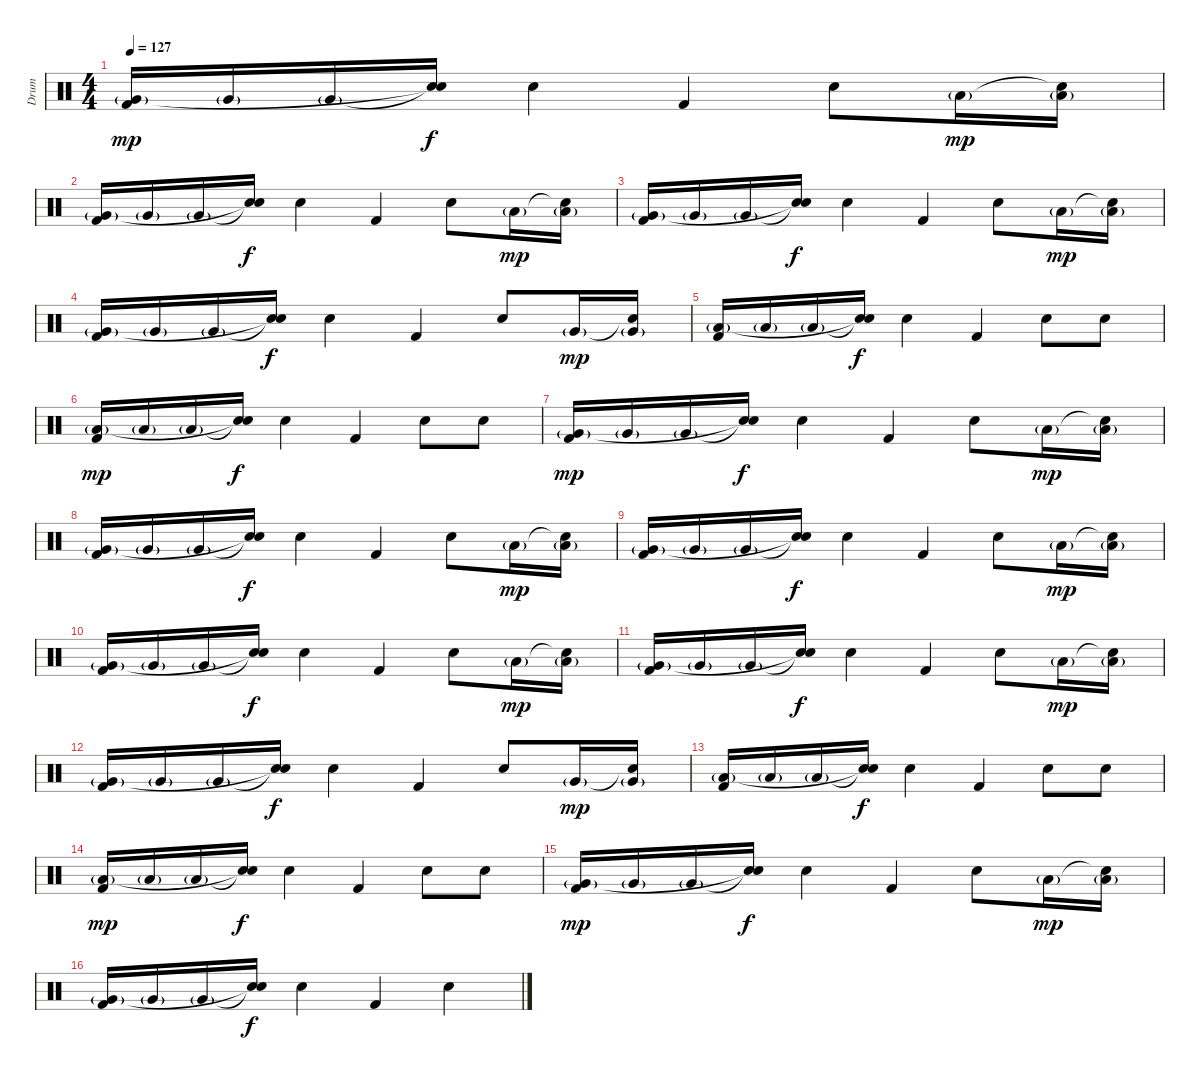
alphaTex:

\track ("Drum" "Drum") {instrument percussion}
\staff {score}
\articulation defaults
\ts (4 4)
\tempo 127
\clef neutral
\ks c
("Kick (hit) 2" "Very Low Tom (hit)"{g}).16{dy mp} "Very Low Tom (hit)"{g}.16 "Very Low Tom (hit)"{g}.16 ("Snare (hit)"{t} "Snare (hit)"{t}).16{dy f} "Electric Snare (hit)".4 "Kick (hit) 2".4 "Electric Snare (hit)".8 "Low Tom (hit)"{g}.16{dy mp} ("Snare (hit)"{t} "Low Tom (hit)"{g}).16 |
("Kick (hit) 2" "Very Low Tom (hit)"{g}).16 "Very Low Tom (hit)"{g}.16 "Very Low Tom (hit)"{g}.16 ("Snare (hit)"{t} "Snare (hit)"{t}).16{dy f} "Electric Snare (hit)".4 "Kick (hit) 2".4 "Electric Snare (hit)".8 "Low Tom (hit)"{g}.16{dy mp} ("Snare (hit)"{t} "Low Tom (hit)"{g}).16 |
("Kick (hit) 2" "Very Low Tom (hit)"{g}).16 "Very Low Tom (hit)"{g}.16 "Very Low Tom (hit)"{g}.16 ("Snare (hit)"{t} "Snare (hit)"{t}).16{dy f} "Electric Snare (hit)".4 "Kick (hit) 2".4 "Electric Snare (hit)".8 "Low Tom (hit)"{g}.16{dy mp} ("Snare (hit)"{t} "Low Tom (hit)"{g}).16 |
("Kick (hit) 2" "Very Low Tom (hit)"{g}).16 "Very Low Tom (hit)"{g}.16 "Very Low Tom (hit)"{g}.16 ("Snare (hit)"{t} "Snare (hit)"{t}).16{dy f} "Electric Snare (hit)".4 "Kick (hit) 2".4 "Electric Snare (hit)".8 "Very Low Tom (hit)"{g}.16{dy mp} ("Snare (hit)"{t} "Very Low Tom (hit)"{g}).16 |
("Kick (hit) 2" "Low Floor Tom (hit)"{g}).16 "Low Floor Tom (hit)"{g}.16 "Low Floor Tom (hit)"{g}.16 ("Snare (hit)"{t} "Snare (hit)"{t}).16{dy f} "Electric Snare (hit)".4 "Kick (hit) 2".4 "Electric Snare (hit)".8 "Electric Snare (hit)".8 |
("Kick (hit) 2" "Low Floor Tom (hit)"{g}).16{dy mp} "Low Floor Tom (hit)"{g}.16 "Low Floor Tom (hit)"{g}.16 ("Snare (hit)"{t} "Snare (hit)"{t}).16{dy f} "Electric Snare (hit)".4 "Kick (hit) 2".4 "Electric Snare (hit)".8 "Electric Snare (hit)".8 |
("Kick (hit) 2" "Very Low Tom (hit)"{g}).16{dy mp} "Very Low Tom (hit)"{g}.16 "Very Low Tom (hit)"{g}.16 ("Snare (hit)"{t} "Snare (hit)"{t}).16{dy f} "Electric Snare (hit)".4 "Kick (hit) 2".4 "Electric Snare (hit)".8 "Low Tom (hit)"{g}.16{dy mp} ("Snare (hit)"{t} "Low Tom (hit)"{g}).16 |
("Kick (hit) 2" "Very Low Tom (hit)"{g}).16 "Very Low Tom (hit)"{g}.16 "Very Low Tom (hit)"{g}.16 ("Snare (hit)"{t} "Snare (hit)"{t}).16{dy f} "Electric Snare (hit)".4 "Kick (hit) 2".4 "Electric Snare (hit)".8 "Low Tom (hit)"{g}.16{dy mp} ("Snare (hit)"{t} "Low Tom (hit)"{g}).16 |
("Kick (hit) 2" "Very Low Tom (hit)"{g}).16 "Very Low Tom (hit)"{g}.16 "Very Low Tom (hit)"{g}.16 ("Snare (hit)"{t} "Snare (hit)"{t}).16{dy f} "Electric Snare (hit)".4 "Kick (hit) 2".4 "Electric Snare (hit)".8 "Low Tom (hit)"{g}.16{dy mp} ("Snare (hit)"{t} "Low Tom (hit)"{g}).16 |
("Kick (hit) 2" "Very Low Tom (hit)"{g}).16 "Very Low Tom (hit)"{g}.16 "Very Low Tom (hit)"{g}.16 ("Snare (hit)"{t} "Snare (hit)"{t}).16{dy f} "Electric Snare (hit)".4 "Kick (hit) 2".4 "Electric Snare (hit)".8 "Low Tom (hit)"{g}.16{dy mp} ("Snare (hit)"{t} "Low Tom (hit)"{g}).16 |
("Kick (hit) 2" "Very Low Tom (hit)"{g}).16 "Very Low Tom (hit)"{g}.16 "Very Low Tom (hit)"{g}.16 ("Snare (hit)"{t} "Snare (hit)"{t}).16{dy f} "Electric Snare (hit)".4 "Kick (hit) 2".4 "Electric Snare (hit)".8 "Low Tom (hit)"{g}.16{dy mp} ("Snare (hit)"{t} "Low Tom (hit)"{g}).16 |
("Kick (hit) 2" "Very Low Tom (hit)"{g}).16 "Very Low Tom (hit)"{g}.16 "Very Low Tom (hit)"{g}.16 ("Snare (hit)"{t} "Snare (hit)"{t}).16{dy f} "Electric Snare (hit)".4 "Kick (hit) 2".4 "Electric Snare (hit)".8 "Very Low Tom (hit)"{g}.16{dy mp} ("Snare (hit)"{t} "Very Low Tom (hit)"{g}).16 |
("Kick (hit) 2" "Low Floor Tom (hit)"{g}).16 "Low Floor Tom (hit)"{g}.16 "Low Floor Tom (hit)"{g}.16 ("Snare (hit)"{t} "Snare (hit)"{t}).16{dy f} "Electric Snare (hit)".4 "Kick (hit) 2".4 "Electric Snare (hit)".8 "Electric Snare (hit)".8 |
("Kick (hit) 2" "Low Floor Tom (hit)"{g}).16{dy mp} "Low Floor Tom (hit)"{g}.16 "Low Floor Tom (hit)"{g}.16 ("Snare (hit)"{t} "Snare (hit)"{t}).16{dy f} "Electric Snare (hit)".4 "Kick (hit) 2".4 "Electric Snare (hit)".8 "Electric Snare (hit)".8 |
("Kick (hit) 2" "Very Low Tom (hit)"{g}).16{dy mp} "Very Low Tom (hit)"{g}.16 "Very Low Tom (hit)"{g}.16 ("Snare (hit)"{t} "Snare (hit)"{t}).16{dy f} "Electric Snare (hit)".4 "Kick (hit) 2".4 "Electric Snare (hit)".8 "Low Tom (hit)"{g}.16{dy mp} ("Snare (hit)"{t} "Low Tom (hit)"{g}).16 |
("Kick (hit) 2" "Very Low Tom (hit)"{g}).16 "Very Low Tom (hit)"{g}.16 "Very Low Tom (hit)"{g}.16 ("Snare (hit)"{t} "Snare (hit)"{t}).16{dy f} "Electric Snare (hit)".4 "Kick (hit) 2".4 "Electric Snare (hit)".4
